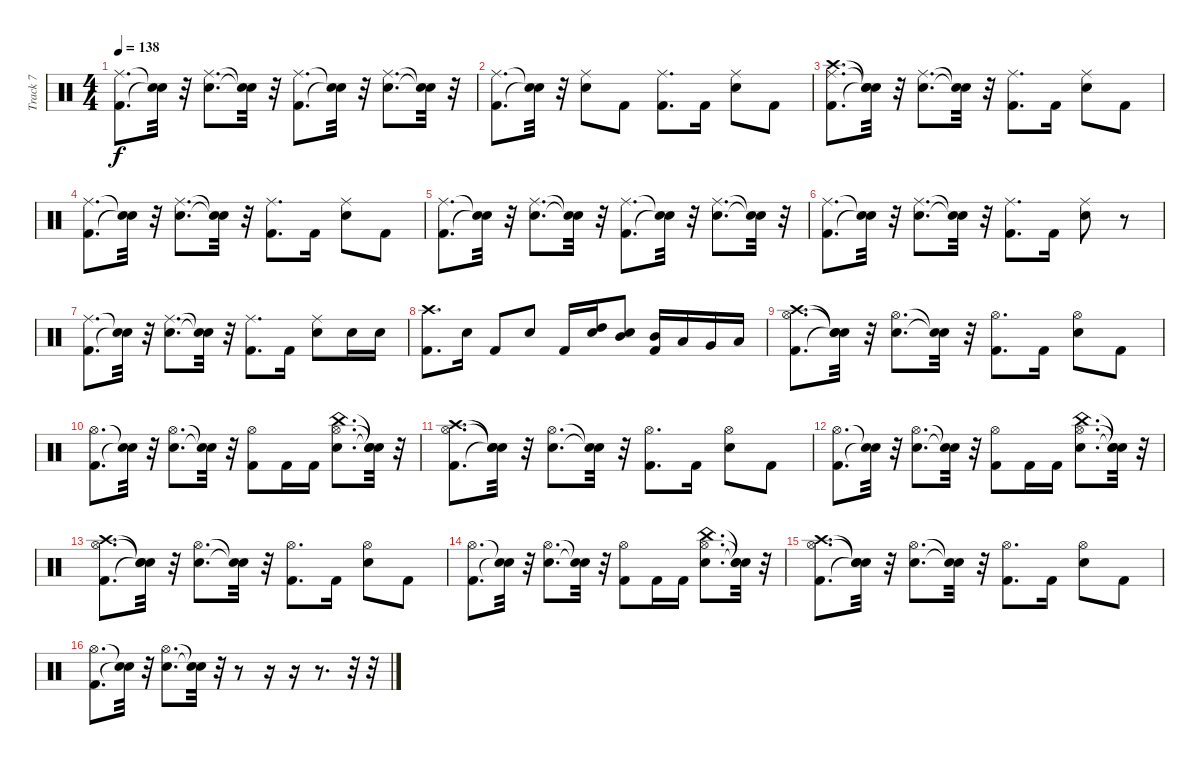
\track ("Track 7" "Track 7") {instrument percussion}
\staff {score}
\articulation defaults
\ts (4 4)
\tempo 138
\clef neutral
\ks c
("Kick (hit) 2" "Ride (middle)").8{d dy f} ("Snare (hit)"{t} "Snare (hit)"{t}).32 r.32 ("Snare (hit) 2" "Ride (middle)").8{d} ("Snare (hit)"{t} "Snare (hit)"{t}).32 r.32 ("Kick (hit) 2" "Ride (middle)").8{d} ("Snare (hit)"{t} "Snare (hit)"{t}).32 r.32 ("Snare (hit) 2" "Ride (middle)").8{d} ("Snare (hit)"{t} "Snare (hit)"{t}).32 r.32 |
("Kick (hit) 2" "Ride (middle)").8{d} ("Snare (hit)"{t} "Snare (hit)"{t}).32 r.32 ("Snare (hit) 2" "Ride (middle)").8 "Kick (hit) 2".8 ("Kick (hit) 2" "Ride (middle)").8{d} "Kick (hit) 2".16 ("Snare (hit) 2" "Ride (middle)").8 "Kick (hit) 2".8 |
("Kick (hit) 2" "Crash high (hit)" "Ride (middle)").8{d} ("Snare (hit)"{t} "Snare (hit)"{t} "Snare (hit)"{t}).32 r.32 ("Snare (hit) 2" "Ride (middle)").8{d} ("Snare (hit)"{t} "Snare (hit)"{t}).32 r.32 ("Kick (hit) 2" "Ride (middle)").8{d} "Kick (hit) 2".16 ("Snare (hit) 2" "Ride (middle)").8 "Kick (hit) 2".8 |
("Kick (hit) 2" "Ride (middle)").8{d} ("Snare (hit)"{t} "Snare (hit)"{t}).32 r.32 ("Snare (hit) 2" "Ride (middle)").8{d} ("Snare (hit)"{t} "Snare (hit)"{t}).32 r.32 ("Kick (hit) 2" "Ride (middle)").8{d} "Kick (hit) 2".16 ("Snare (hit) 2" "Ride (middle)").8 "Kick (hit) 2".8 |
("Kick (hit) 2" "Ride (middle)").8{d} ("Snare (hit)"{t} "Snare (hit)"{t}).32 r.32 ("Snare (hit) 2" "Ride (middle)").8{d} ("Snare (hit)"{t} "Snare (hit)"{t}).32 r.32 ("Kick (hit) 2" "Ride (middle)").8{d} ("Snare (hit)"{t} "Snare (hit)"{t}).32 r.32 ("Snare (hit) 2" "Ride (middle)").8{d} ("Snare (hit)"{t} "Snare (hit)"{t}).32 r.32 |
("Kick (hit) 2" "Ride (middle)").8{d} ("Snare (hit)"{t} "Snare (hit)"{t}).32 r.32 ("Snare (hit) 2" "Ride (middle)").8{d} ("Snare (hit)"{t} "Snare (hit)"{t}).32 r.32 ("Kick (hit) 2" "Ride (middle)").8{d} "Kick (hit) 2".16 ("Snare (hit) 2" "Ride (middle)").8 r.8 |
("Kick (hit) 2" "Ride (middle)").8{d} ("Snare (hit)"{t} "Snare (hit)"{t}).32 r.32 ("Snare (hit) 2" "Ride (middle)").8{d} ("Snare (hit)"{t} "Snare (hit)"{t}).32 r.32 ("Kick (hit) 2" "Ride (middle)").8{d} "Kick (hit) 2".16 ("Snare (hit) 2" "Ride (middle)").8 "Snare (hit) 2".16 "Snare (hit) 2".16 |
("Kick (hit) 2" "Crash high (hit)").8{d} "Snare (hit) 2".16 "Kick (hit) 2".8 "Snare (hit) 2".8 "Kick (hit) 2".16 ("Snare (hit) 2" "High Tom (hit)").16 ("Snare (hit) 2" "Mid Tom (hit)").8 ("Kick (hit) 2" "Mid Tom (hit)").16 "Low Tom (hit)".16 "Very Low Tom (hit)".16 "Low Floor Tom (hit)".16 |
("Kick (hit) 2" "Hi-Hat (open)" "Crash high (hit)").8{d} ("Snare (hit)"{t} "Snare (hit)"{t} "Snare (hit)"{t}).32 r.32 ("Snare (hit) 2" "Hi-Hat (open)").8{d} ("Snare (hit)"{t} "Snare (hit)"{t}).32 r.32 ("Kick (hit) 2" "Hi-Hat (open)").8{d} "Kick (hit) 2".16 ("Snare (hit) 2" "Hi-Hat (open)").8 "Kick (hit) 2".8 |
("Kick (hit) 2" "Hi-Hat (open)").8{d} ("Snare (hit)"{t} "Snare (hit)"{t}).32 r.32 ("Snare (hit) 2" "Hi-Hat (open)").8{d} ("Snare (hit)"{t} "Snare (hit)"{t}).32 r.32 ("Kick (hit) 2" "Hi-Hat (open)").8 "Kick (hit) 2".16 "Kick (hit) 2".16 ("Snare (hit) 2" "Hi-Hat (open)" "China (hit)").8{d} ("Snare (hit)"{t} "Snare (hit)"{t} "Snare (hit)"{t}).32 r.32 |
("Kick (hit) 2" "Hi-Hat (open)" "Crash high (hit)").8{d} ("Snare (hit)"{t} "Snare (hit)"{t} "Snare (hit)"{t}).32 r.32 ("Snare (hit) 2" "Hi-Hat (open)").8{d} ("Snare (hit)"{t} "Snare (hit)"{t}).32 r.32 ("Kick (hit) 2" "Hi-Hat (open)").8{d} "Kick (hit) 2".16 ("Snare (hit) 2" "Hi-Hat (open)").8 "Kick (hit) 2".8 |
("Kick (hit) 2" "Hi-Hat (open)").8{d} ("Snare (hit)"{t} "Snare (hit)"{t}).32 r.32 ("Snare (hit) 2" "Hi-Hat (open)").8{d} ("Snare (hit)"{t} "Snare (hit)"{t}).32 r.32 ("Kick (hit) 2" "Hi-Hat (open)").8 "Kick (hit) 2".16 "Kick (hit) 2".16 ("Snare (hit) 2" "Hi-Hat (open)" "China (hit)").8{d} ("Snare (hit)"{t} "Snare (hit)"{t} "Snare (hit)"{t}).32 r.32 |
("Kick (hit) 2" "Hi-Hat (open)" "Crash high (hit)").8{d} ("Snare (hit)"{t} "Snare (hit)"{t} "Snare (hit)"{t}).32 r.32 ("Snare (hit) 2" "Hi-Hat (open)").8{d} ("Snare (hit)"{t} "Snare (hit)"{t}).32 r.32 ("Kick (hit) 2" "Hi-Hat (open)").8{d} "Kick (hit) 2".16 ("Snare (hit) 2" "Hi-Hat (open)").8 "Kick (hit) 2".8 |
("Kick (hit) 2" "Hi-Hat (open)").8{d} ("Snare (hit)"{t} "Snare (hit)"{t}).32 r.32 ("Snare (hit) 2" "Hi-Hat (open)").8{d} ("Snare (hit)"{t} "Snare (hit)"{t}).32 r.32 ("Kick (hit) 2" "Hi-Hat (open)").8 "Kick (hit) 2".16 "Kick (hit) 2".16 ("Snare (hit) 2" "Hi-Hat (open)" "China (hit)").8{d} ("Snare (hit)"{t} "Snare (hit)"{t} "Snare (hit)"{t}).32 r.32 |
("Kick (hit) 2" "Hi-Hat (open)" "Crash high (hit)").8{d} ("Snare (hit)"{t} "Snare (hit)"{t} "Snare (hit)"{t}).32 r.32 ("Snare (hit) 2" "Hi-Hat (open)").8{d} ("Snare (hit)"{t} "Snare (hit)"{t}).32 r.32 ("Kick (hit) 2" "Hi-Hat (open)").8{d} "Kick (hit) 2".16 ("Snare (hit) 2" "Hi-Hat (open)").8 "Kick (hit) 2".8 |
("Kick (hit) 2" "Hi-Hat (open)").8{d} ("Snare (hit)"{t} "Snare (hit)"{t}).32 r.32 ("Snare (hit) 2" "Hi-Hat (open)").8{d} ("Snare (hit)"{t} "Snare (hit)"{t}).32 r.32 r.8 r.16 r.16 r.8{d} r.32 r.32
